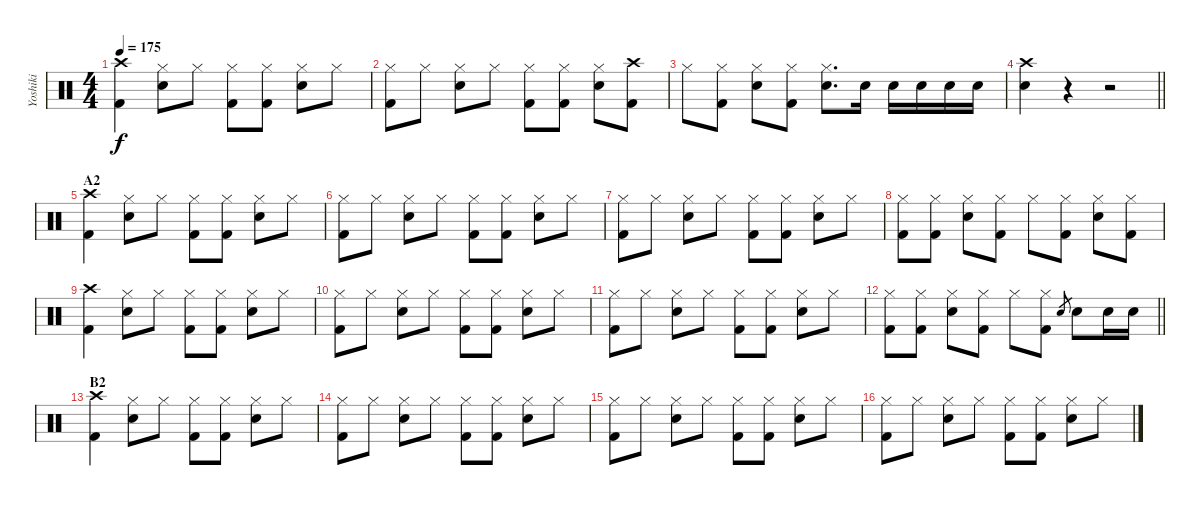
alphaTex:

\track ("Yoshiki" "Yoshiki") {instrument percussion}
\staff {score}
\articulation defaults
\ts (4 4)
\tempo 175
\clef neutral
\ks c
("Crash high (hit)" "Kick (hit) 2").4{dy f} ("Hi-Hat (closed)" "Electric Snare (hit)").8 "Hi-Hat (closed)".8 ("Hi-Hat (closed)" "Kick (hit) 2").8 ("Hi-Hat (closed)" "Kick (hit) 2").8 ("Hi-Hat (closed)" "Electric Snare (hit)").8 "Hi-Hat (closed)".8 |
("Hi-Hat (closed)" "Kick (hit) 2").8 "Hi-Hat (closed)".8 ("Hi-Hat (closed)" "Electric Snare (hit)").8 "Hi-Hat (closed)".8 ("Hi-Hat (closed)" "Kick (hit) 2").8 ("Hi-Hat (closed)" "Kick (hit) 2").8 ("Hi-Hat (closed)" "Electric Snare (hit)").8 ("Crash high (hit)" "Kick (hit) 2").8 |
"Hi-Hat (closed)".8 ("Hi-Hat (closed)" "Kick (hit) 2").8 ("Hi-Hat (closed)" "Electric Snare (hit)").8 ("Hi-Hat (closed)" "Kick (hit) 2").8 ("Hi-Hat (closed)" "Electric Snare (hit)").8{d} "Electric Snare (hit)".16 "Electric Snare (hit)".16 "Electric Snare (hit)".16 "Electric Snare (hit)".16 "Electric Snare (hit)".16 |
\barLineRight lightlight
("Crash high (hit)" "Electric Snare (hit)").4 r.4 r.2 |
\section ("" "A2")
("Crash high (hit)" "Kick (hit) 2").4 ("Hi-Hat (closed)" "Electric Snare (hit)").8 "Hi-Hat (closed)".8 ("Hi-Hat (closed)" "Kick (hit) 2").8 ("Hi-Hat (closed)" "Kick (hit) 2").8 ("Hi-Hat (closed)" "Electric Snare (hit)").8 "Hi-Hat (closed)".8 |
("Hi-Hat (closed)" "Kick (hit) 2").8 "Hi-Hat (closed)".8 ("Hi-Hat (closed)" "Electric Snare (hit)").8 "Hi-Hat (closed)".8 ("Hi-Hat (closed)" "Kick (hit) 2").8 ("Hi-Hat (closed)" "Kick (hit) 2").8 ("Hi-Hat (closed)" "Electric Snare (hit)").8 "Hi-Hat (closed)".8 |
("Hi-Hat (closed)" "Kick (hit) 2").8 "Hi-Hat (closed)".8 ("Hi-Hat (closed)" "Electric Snare (hit)").8 "Hi-Hat (closed)".8 ("Hi-Hat (closed)" "Kick (hit) 2").8 ("Hi-Hat (closed)" "Kick (hit) 2").8 ("Hi-Hat (closed)" "Electric Snare (hit)").8 "Hi-Hat (closed)".8 |
("Hi-Hat (closed)" "Kick (hit) 2").8 ("Hi-Hat (closed)" "Kick (hit) 2").8 ("Hi-Hat (closed)" "Electric Snare (hit)").8 ("Hi-Hat (closed)" "Kick (hit) 2").8 "Hi-Hat (closed)".8 ("Hi-Hat (closed)" "Kick (hit) 2").8 ("Hi-Hat (closed)" "Electric Snare (hit)").8 ("Hi-Hat (closed)" "Kick (hit) 2").8 |
("Crash high (hit)" "Kick (hit) 2").4 ("Hi-Hat (closed)" "Electric Snare (hit)").8 "Hi-Hat (closed)".8 ("Hi-Hat (closed)" "Kick (hit) 2").8 ("Hi-Hat (closed)" "Kick (hit) 2").8 ("Hi-Hat (closed)" "Electric Snare (hit)").8 "Hi-Hat (closed)".8 |
("Hi-Hat (closed)" "Kick (hit) 2").8 "Hi-Hat (closed)".8 ("Hi-Hat (closed)" "Electric Snare (hit)").8 "Hi-Hat (closed)".8 ("Hi-Hat (closed)" "Kick (hit) 2").8 ("Hi-Hat (closed)" "Kick (hit) 2").8 ("Hi-Hat (closed)" "Electric Snare (hit)").8 "Hi-Hat (closed)".8 |
("Hi-Hat (closed)" "Kick (hit) 2").8 "Hi-Hat (closed)".8 ("Hi-Hat (closed)" "Electric Snare (hit)").8 "Hi-Hat (closed)".8 ("Hi-Hat (closed)" "Kick (hit) 2").8 ("Hi-Hat (closed)" "Kick (hit) 2").8 ("Hi-Hat (closed)" "Electric Snare (hit)").8 "Hi-Hat (closed)".8 |
\barLineRight lightlight
("Hi-Hat (closed)" "Kick (hit) 2").8 ("Hi-Hat (closed)" "Kick (hit) 2").8 ("Hi-Hat (closed)" "Electric Snare (hit)").8 ("Hi-Hat (closed)" "Kick (hit) 2").8 "Hi-Hat (closed)".8 ("Hi-Hat (closed)" "Kick (hit) 2").8 "Electric Snare (hit)".8{gr} "Electric Snare (hit)".8 "Electric Snare (hit)".16 "Electric Snare (hit)".16 |
\section ("" "B2")
("Crash high (hit)" "Kick (hit) 2").4 ("Hi-Hat (closed)" "Electric Snare (hit)").8 "Hi-Hat (closed)".8 ("Hi-Hat (closed)" "Kick (hit) 2").8 ("Hi-Hat (closed)" "Kick (hit) 2").8 ("Hi-Hat (closed)" "Electric Snare (hit)").8 "Hi-Hat (closed)".8 |
("Hi-Hat (closed)" "Kick (hit) 2").8 "Hi-Hat (closed)".8 ("Hi-Hat (closed)" "Electric Snare (hit)").8 "Hi-Hat (closed)".8 ("Hi-Hat (closed)" "Kick (hit) 2").8 ("Hi-Hat (closed)" "Kick (hit) 2").8 ("Hi-Hat (closed)" "Electric Snare (hit)").8 "Hi-Hat (closed)".8 |
("Hi-Hat (closed)" "Kick (hit) 2").8 "Hi-Hat (closed)".8 ("Hi-Hat (closed)" "Electric Snare (hit)").8 "Hi-Hat (closed)".8 ("Hi-Hat (closed)" "Kick (hit) 2").8 ("Hi-Hat (closed)" "Kick (hit) 2").8 ("Hi-Hat (closed)" "Electric Snare (hit)").8 "Hi-Hat (closed)".8 |
("Hi-Hat (closed)" "Kick (hit) 2").8 "Hi-Hat (closed)".8 ("Hi-Hat (closed)" "Electric Snare (hit)").8 "Hi-Hat (closed)".8 ("Hi-Hat (closed)" "Kick (hit) 2").8 ("Hi-Hat (closed)" "Kick (hit) 2").8 ("Hi-Hat (closed)" "Electric Snare (hit)").8 "Hi-Hat (closed)".8
